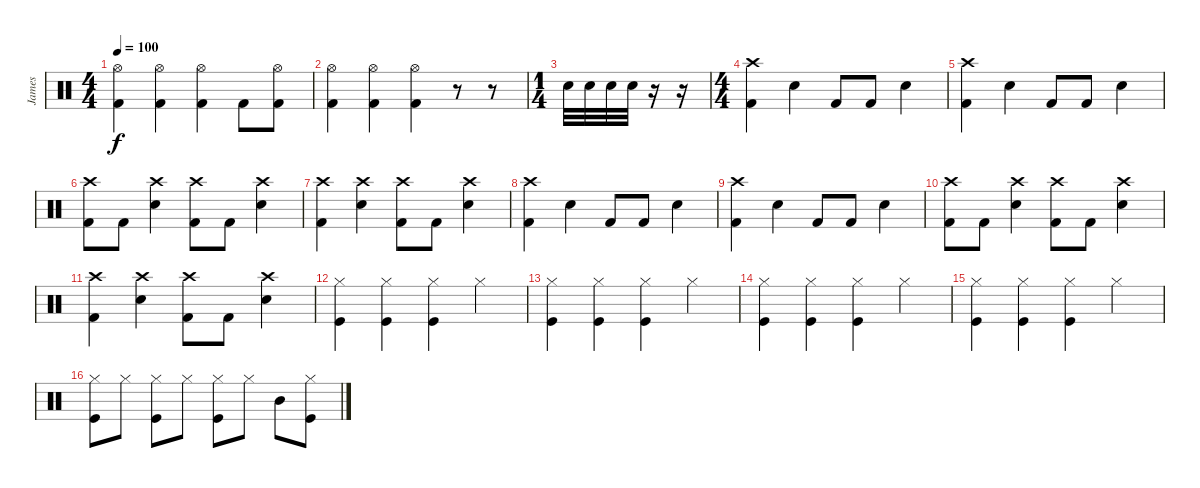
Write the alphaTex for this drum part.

\track ("James" "James") {instrument percussion}
\staff {score}
\articulation defaults
\ts (4 4)
\tempo 100
\clef neutral
\ks c
("Kick (hit) 2" "Hi-Hat (open)").4{dy f} ("Kick (hit) 2" "Hi-Hat (open)").4 ("Kick (hit) 2" "Hi-Hat (open)").4 "Kick (hit) 2".8 ("Kick (hit) 2" "Hi-Hat (open)").8 |
("Kick (hit) 2" "Hi-Hat (open)").4 ("Kick (hit) 2" "Hi-Hat (open)").4 ("Kick (hit) 2" "Hi-Hat (open)").4 r.8 r.8 |
\ts (1 4)
"Electric Snare (hit)".32 "Electric Snare (hit)".32 "Electric Snare (hit)".32 "Electric Snare (hit)".32 r.16 r.16 |
\ts (4 4)
("Kick (hit) 2" "Crash high (hit)").4 "Electric Snare (hit)".4 "Kick (hit) 2".8 "Kick (hit) 2".8 "Electric Snare (hit)".4 |
("Kick (hit) 2" "Crash high (hit)").4 "Electric Snare (hit)".4 "Kick (hit) 2".8 "Kick (hit) 2".8 "Electric Snare (hit)".4 |
("Kick (hit) 2" "Crash high (hit)").8 "Kick (hit) 2".8 ("Electric Snare (hit)" "Crash high (hit)").4 ("Kick (hit) 2" "Crash high (hit)").8 "Kick (hit) 2".8 ("Electric Snare (hit)" "Crash high (hit)").4 |
("Kick (hit) 2" "Crash high (hit)").4 ("Electric Snare (hit)" "Crash high (hit)").4 ("Kick (hit) 2" "Crash high (hit)").8 "Kick (hit) 2".8 ("Electric Snare (hit)" "Crash high (hit)").4 |
("Kick (hit) 2" "Crash high (hit)").4 "Electric Snare (hit)".4 "Kick (hit) 2".8 "Kick (hit) 2".8 "Electric Snare (hit)".4 |
("Kick (hit) 2" "Crash high (hit)").4 "Electric Snare (hit)".4 "Kick (hit) 2".8 "Kick (hit) 2".8 "Electric Snare (hit)".4 |
("Kick (hit) 2" "Crash high (hit)").8 "Kick (hit) 2".8 ("Electric Snare (hit)" "Crash high (hit)").4 ("Kick (hit) 2" "Crash high (hit)").8 "Kick (hit) 2".8 ("Electric Snare (hit)" "Crash high (hit)").4 |
("Kick (hit) 2" "Crash high (hit)").4 ("Electric Snare (hit)" "Crash high (hit)").4 ("Kick (hit) 2" "Crash high (hit)").8 "Kick (hit) 2".8 ("Electric Snare (hit)" "Crash high (hit)").4 |
("Kick (hit)" "Hi-Hat (closed)").4 ("Kick (hit)" "Hi-Hat (closed)").4 ("Kick (hit)" "Hi-Hat (closed)").4 "Hi-Hat (closed)".4 |
("Kick (hit)" "Hi-Hat (closed)").4 ("Kick (hit)" "Hi-Hat (closed)").4 ("Kick (hit)" "Hi-Hat (closed)").4 "Hi-Hat (closed)".4 |
("Kick (hit)" "Hi-Hat (closed)").4 ("Kick (hit)" "Hi-Hat (closed)").4 ("Kick (hit)" "Hi-Hat (closed)").4 "Hi-Hat (closed)".4 |
("Kick (hit)" "Hi-Hat (closed)").4 ("Kick (hit)" "Hi-Hat (closed)").4 ("Kick (hit)" "Hi-Hat (closed)").4 "Hi-Hat (closed)".4 |
("Kick (hit)" "Hi-Hat (closed)").8 "Hi-Hat (closed)".8 ("Kick (hit)" "Hi-Hat (closed)").8 "Hi-Hat (closed)".8 ("Kick (hit)" "Hi-Hat (closed)").8 "Hi-Hat (closed)".8 "Mid Tom (hit)".8 ("Kick (hit)" "Hi-Hat (closed)").8
